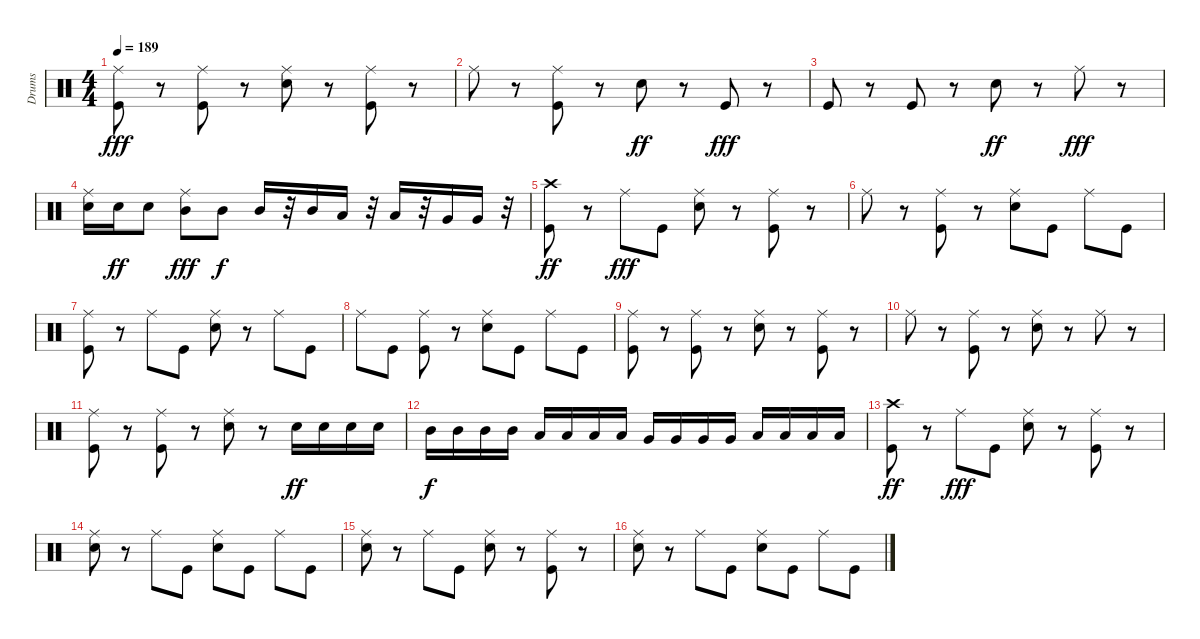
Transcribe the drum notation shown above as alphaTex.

\track ("Drums" "Drums") {instrument percussion}
\staff {score}
\articulation defaults
\ts (4 4)
\tempo 189
\clef neutral
\ks c
("Kick (hit)" "Ride (middle)").8{dy fff} r.8 ("Kick (hit)" "Ride (middle)").8 r.8 ("Snare (hit) 2" "Ride (middle)").8 r.8 ("Kick (hit)" "Ride (middle)").8 r.8 |
"Ride (middle)".8 r.8 ("Kick (hit)" "Ride (middle)").8 r.8 "Snare (hit) 2".8{dy ff} r.8 "Kick (hit)".8{dy fff} r.8 |
"Kick (hit)".8 r.8 "Kick (hit)".8 r.8 "Snare (hit) 2".8{dy ff} r.8 "Ride (middle)".8{dy fff} r.8 |
("Snare (hit) 2" "Ride (middle)").16 "Snare (hit) 2".16{dy ff} "Snare (hit) 2".8 ("Mid Tom (hit)" "Ride (middle)").8{dy fff} "Mid Tom (hit)".8{dy f} "Mid Tom (hit)".16 r.32 "Mid Tom (hit)".16 "Low Tom (hit)".16 r.32 "Low Tom (hit)".16 r.32 "Very Low Tom (hit)".16 "Very Low Tom (hit)".16 r.32 |
("Kick (hit)" "Crash high (hit)").8{dy ff} r.8 "Ride (middle)".8{dy fff} "Kick (hit)".8 ("Snare (hit) 2" "Ride (middle)").8 r.8 ("Kick (hit)" "Ride (middle)").8 r.8 |
"Ride (middle)".8 r.8 ("Kick (hit)" "Ride (middle)").8 r.8 ("Snare (hit) 2" "Ride (middle)").8 "Kick (hit)".8 "Ride (middle)".8 "Kick (hit)".8 |
("Kick (hit)" "Ride (middle)").8 r.8 "Ride (middle)".8 "Kick (hit)".8 ("Snare (hit) 2" "Ride (middle)").8 r.8 "Ride (middle)".8 "Kick (hit)".8 |
"Ride (middle)".8 "Kick (hit)".8 ("Kick (hit)" "Ride (middle)").8 r.8 ("Snare (hit) 2" "Ride (middle)").8 "Kick (hit)".8 "Ride (middle)".8 "Kick (hit)".8 |
("Kick (hit)" "Ride (middle)").8 r.8 ("Kick (hit)" "Ride (middle)").8 r.8 ("Snare (hit) 2" "Ride (middle)").8 r.8 ("Kick (hit)" "Ride (middle)").8 r.8 |
"Ride (middle)".8 r.8 ("Kick (hit)" "Ride (middle)").8 r.8 ("Snare (hit) 2" "Ride (middle)").8 r.8 "Ride (middle)".8 r.8 |
("Kick (hit)" "Ride (middle)").8 r.8 ("Kick (hit)" "Ride (middle)").8 r.8 ("Snare (hit) 2" "Ride (middle)").8 r.8 "Snare (hit) 2".16{dy ff} "Snare (hit) 2".16 "Snare (hit) 2".16 "Snare (hit) 2".16 |
"Mid Tom (hit)".16{dy f} "Mid Tom (hit)".16 "Mid Tom (hit)".16 "Mid Tom (hit)".16 "Low Tom (hit)".16 "Low Tom (hit)".16 "Low Tom (hit)".16 "Low Tom (hit)".16 "Very Low Tom (hit)".16 "Very Low Tom (hit)".16 "Very Low Tom (hit)".16 "Very Low Tom (hit)".16 "Low Floor Tom (hit)".16 "Low Floor Tom (hit)".16 "Low Floor Tom (hit)".16 "Low Floor Tom (hit)".16 |
("Kick (hit)" "Crash high (hit)").8{dy ff} r.8 "Ride (middle)".8{dy fff} "Kick (hit)".8 ("Snare (hit) 2" "Ride (middle)").8 r.8 ("Kick (hit)" "Ride (middle)").8 r.8 |
("Snare (hit) 2" "Ride (middle)").8 r.8 "Ride (middle)".8 "Kick (hit)".8 ("Snare (hit) 2" "Ride (middle)").8 "Kick (hit)".8 "Ride (middle)".8 "Kick (hit)".8 |
("Snare (hit) 2" "Ride (middle)").8 r.8 "Ride (middle)".8 "Kick (hit)".8 ("Snare (hit) 2" "Ride (middle)").8 r.8 ("Kick (hit)" "Ride (middle)").8 r.8 |
("Snare (hit) 2" "Ride (middle)").8 r.8 "Ride (middle)".8 "Kick (hit)".8 ("Snare (hit) 2" "Ride (middle)").8 "Kick (hit)".8 "Ride (middle)".8 "Kick (hit)".8
